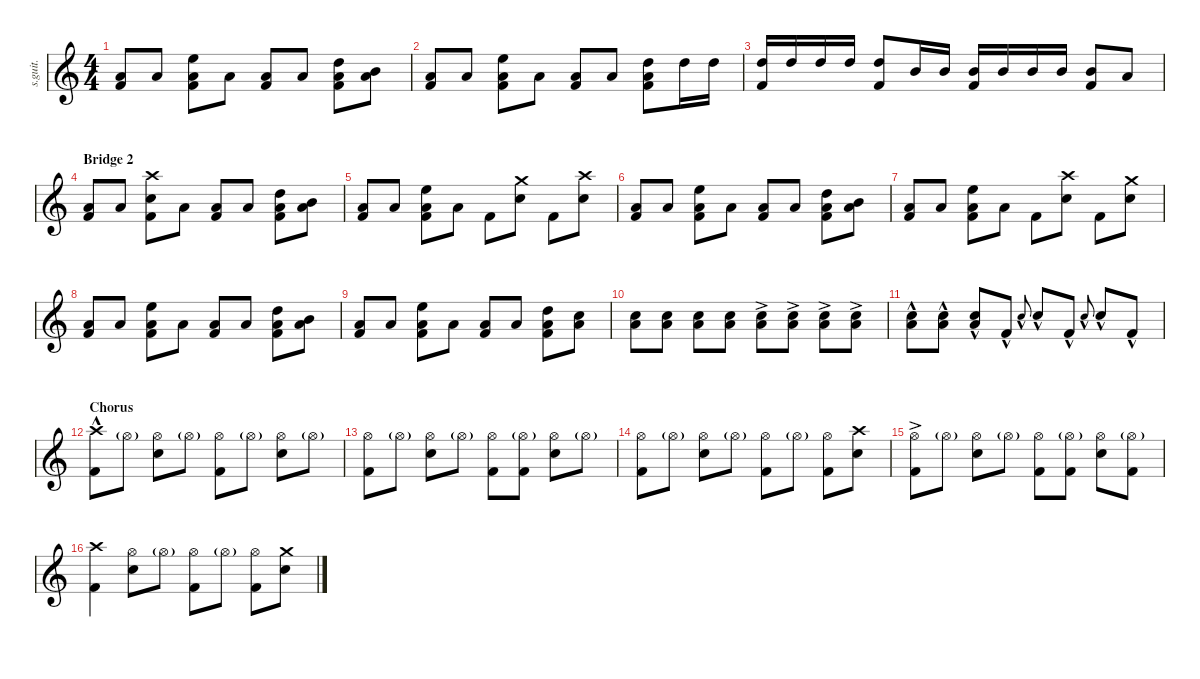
\defaultSystemsLayout 4
\hideDynamics
\bracketExtendMode nobrackets
\track ("Lars Ulrich" "s.guit.") {instrument percussion}
\staff {score}
\articulation defaults
\ts (4 4)
\tempo (124 hide)
\clef g2
\ks c
("Low Floor Tom (hit)" "Kick (hit) 2").8{lyrics (0 "") lyrics (1 "") lyrics (2 "") lyrics (3 "") lyrics (4 "") dy f} "Low Floor Tom (hit)".8{lyrics (0 "") lyrics (1 "") lyrics (2 "") lyrics (3 "") lyrics (4 "") dy mf} ("Low Floor Tom (hit)" "Kick (hit) 2" "High Floor Tom (hit)").8{lyrics (0 "") lyrics (1 "") lyrics (2 "") lyrics (3 "") lyrics (4 "") dy f} "Low Floor Tom (hit)".8{lyrics (0 "") lyrics (1 "") lyrics (2 "") lyrics (3 "") lyrics (4 "") dy mf} ("Low Floor Tom (hit)" "Kick (hit) 2").8{lyrics (0 "") lyrics (1 "") lyrics (2 "") lyrics (3 "") lyrics (4 "") dy f} "Low Floor Tom (hit)".8{lyrics (0 "") lyrics (1 "") lyrics (2 "") lyrics (3 "") lyrics (4 "") dy mf} ("Low Floor Tom (hit)" "Kick (hit) 2" "High Tom (hit)").8{lyrics (0 "") lyrics (1 "") lyrics (2 "") lyrics (3 "") lyrics (4 "") dy f} ("Low Floor Tom (hit)" "Mid Tom (hit)").8{lyrics (0 "") lyrics (1 "") lyrics (2 "") lyrics (3 "") lyrics (4 "") dy ff} |
("Low Floor Tom (hit)" "Kick (hit) 2").8{lyrics (0 "") lyrics (1 "") lyrics (2 "") lyrics (3 "") lyrics (4 "") dy f} "Low Floor Tom (hit)".8{lyrics (0 "") lyrics (1 "") lyrics (2 "") lyrics (3 "") lyrics (4 "") dy mf} ("Low Floor Tom (hit)" "Kick (hit) 2" "High Floor Tom (hit)").8{lyrics (0 "") lyrics (1 "") lyrics (2 "") lyrics (3 "") lyrics (4 "") dy f} "Low Floor Tom (hit)".8{lyrics (0 "") lyrics (1 "") lyrics (2 "") lyrics (3 "") lyrics (4 "") dy mf} ("Low Floor Tom (hit)" "Kick (hit) 2").8{lyrics (0 "") lyrics (1 "") lyrics (2 "") lyrics (3 "") lyrics (4 "") dy f} "Low Floor Tom (hit)".8{lyrics (0 "") lyrics (1 "") lyrics (2 "") lyrics (3 "") lyrics (4 "") dy mf} ("Low Floor Tom (hit)" "Kick (hit) 2" "High Tom (hit)").8{lyrics (0 "") lyrics (1 "") lyrics (2 "") lyrics (3 "") lyrics (4 "") dy f} "High Tom (hit)".16{lyrics (0 "") lyrics (1 "") lyrics (2 "") lyrics (3 "") lyrics (4 "") dy ff} "High Tom (hit)".16{lyrics (0 "") lyrics (1 "") lyrics (2 "") lyrics (3 "") lyrics (4 "")} |
("Kick (hit) 2" "High Tom (hit)").16{lyrics (0 "") lyrics (1 "") lyrics (2 "") lyrics (3 "") lyrics (4 "")} "High Tom (hit)".16{lyrics (0 "") lyrics (1 "") lyrics (2 "") lyrics (3 "") lyrics (4 "")} "High Tom (hit)".16{lyrics (0 "") lyrics (1 "") lyrics (2 "") lyrics (3 "") lyrics (4 "")} "High Tom (hit)".16{lyrics (0 "") lyrics (1 "") lyrics (2 "") lyrics (3 "") lyrics (4 "")} ("Kick (hit) 2" "High Tom (hit)").8{lyrics (0 "") lyrics (1 "") lyrics (2 "") lyrics (3 "") lyrics (4 "")} "Mid Tom (hit)".16{lyrics (0 "") lyrics (1 "") lyrics (2 "") lyrics (3 "") lyrics (4 "")} "Mid Tom (hit)".16{lyrics (0 "") lyrics (1 "") lyrics (2 "") lyrics (3 "") lyrics (4 "")} ("Kick (hit) 2" "Mid Tom (hit)").16{lyrics (0 "") lyrics (1 "") lyrics (2 "") lyrics (3 "") lyrics (4 "") dy f} "Mid Tom (hit)".16{lyrics (0 "") lyrics (1 "") lyrics (2 "") lyrics (3 "") lyrics (4 "") dy ff} "Mid Tom (hit)".16{lyrics (0 "") lyrics (1 "") lyrics (2 "") lyrics (3 "") lyrics (4 "")} "Mid Tom (hit)".16{lyrics (0 "") lyrics (1 "") lyrics (2 "") lyrics (3 "") lyrics (4 "")} ("Kick (hit) 2" "Mid Tom (hit)").8{lyrics (0 "") lyrics (1 "") lyrics (2 "") lyrics (3 "") lyrics (4 "")} "Low Floor Tom (hit)".8{lyrics (0 "") lyrics (1 "") lyrics (2 "") lyrics (3 "") lyrics (4 "") dy mf} |
\section ("" "Bridge 2")
("Low Floor Tom (hit)" "Kick (hit) 2").8{lyrics (0 "") lyrics (1 "") lyrics (2 "") lyrics (3 "") lyrics (4 "") dy f} "Low Floor Tom (hit)".8{lyrics (0 "") lyrics (1 "") lyrics (2 "") lyrics (3 "") lyrics (4 "") dy mf} ("Snare (hit) 2" "Crash high (hit)" "Kick (hit) 2").8{lyrics (0 "") lyrics (1 "") lyrics (2 "") lyrics (3 "") lyrics (4 "") dy f} "Low Floor Tom (hit)".8{lyrics (0 "") lyrics (1 "") lyrics (2 "") lyrics (3 "") lyrics (4 "") dy mf} ("Low Floor Tom (hit)" "Kick (hit) 2").8{lyrics (0 "") lyrics (1 "") lyrics (2 "") lyrics (3 "") lyrics (4 "") dy f} "Low Floor Tom (hit)".8{lyrics (0 "") lyrics (1 "") lyrics (2 "") lyrics (3 "") lyrics (4 "") dy mf} ("Low Floor Tom (hit)" "Kick (hit) 2" "High Tom (hit)").8{lyrics (0 "") lyrics (1 "") lyrics (2 "") lyrics (3 "") lyrics (4 "") dy f} ("Low Floor Tom (hit)" "Mid Tom (hit)").8{lyrics (0 "") lyrics (1 "") lyrics (2 "") lyrics (3 "") lyrics (4 "") dy ff} |
("Low Floor Tom (hit)" "Kick (hit) 2").8{lyrics (0 "") lyrics (1 "") lyrics (2 "") lyrics (3 "") lyrics (4 "") dy f} "Low Floor Tom (hit)".8{lyrics (0 "") lyrics (1 "") lyrics (2 "") lyrics (3 "") lyrics (4 "") dy mf} ("Low Floor Tom (hit)" "Kick (hit) 2" "High Floor Tom (hit)").8{lyrics (0 "") lyrics (1 "") lyrics (2 "") lyrics (3 "") lyrics (4 "") dy f} "Low Floor Tom (hit)".8{lyrics (0 "") lyrics (1 "") lyrics (2 "") lyrics (3 "") lyrics (4 "") dy mf} "Kick (hit) 2".8{lyrics (0 "") lyrics (1 "") lyrics (2 "") lyrics (3 "") lyrics (4 "") dy f} ("Snare (hit) 2" "Crash medium (hit)").8{lyrics (0 "") lyrics (1 "") lyrics (2 "") lyrics (3 "") lyrics (4 "")} "Kick (hit) 2".8{lyrics (0 "") lyrics (1 "") lyrics (2 "") lyrics (3 "") lyrics (4 "")} ("Snare (hit) 2" "Crash high (hit)").8{lyrics (0 "") lyrics (1 "") lyrics (2 "") lyrics (3 "") lyrics (4 "")} |
("Low Floor Tom (hit)" "Kick (hit) 2").8{lyrics (0 "") lyrics (1 "") lyrics (2 "") lyrics (3 "") lyrics (4 "")} "Low Floor Tom (hit)".8{lyrics (0 "") lyrics (1 "") lyrics (2 "") lyrics (3 "") lyrics (4 "") dy mf} ("Low Floor Tom (hit)" "Kick (hit) 2" "High Floor Tom (hit)").8{lyrics (0 "") lyrics (1 "") lyrics (2 "") lyrics (3 "") lyrics (4 "") dy f} "Low Floor Tom (hit)".8{lyrics (0 "") lyrics (1 "") lyrics (2 "") lyrics (3 "") lyrics (4 "") dy mf} ("Low Floor Tom (hit)" "Kick (hit) 2").8{lyrics (0 "") lyrics (1 "") lyrics (2 "") lyrics (3 "") lyrics (4 "") dy f} "Low Floor Tom (hit)".8{lyrics (0 "") lyrics (1 "") lyrics (2 "") lyrics (3 "") lyrics (4 "") dy mf} ("Low Floor Tom (hit)" "Kick (hit) 2" "High Tom (hit)").8{lyrics (0 "") lyrics (1 "") lyrics (2 "") lyrics (3 "") lyrics (4 "") dy f} ("Low Floor Tom (hit)" "Mid Tom (hit)").8{lyrics (0 "") lyrics (1 "") lyrics (2 "") lyrics (3 "") lyrics (4 "") dy ff} |
("Low Floor Tom (hit)" "Kick (hit) 2").8{lyrics (0 "") lyrics (1 "") lyrics (2 "") lyrics (3 "") lyrics (4 "") dy f} "Low Floor Tom (hit)".8{lyrics (0 "") lyrics (1 "") lyrics (2 "") lyrics (3 "") lyrics (4 "") dy mf} ("Low Floor Tom (hit)" "Kick (hit) 2" "High Floor Tom (hit)").8{lyrics (0 "") lyrics (1 "") lyrics (2 "") lyrics (3 "") lyrics (4 "") dy f} "Low Floor Tom (hit)".8{lyrics (0 "") lyrics (1 "") lyrics (2 "") lyrics (3 "") lyrics (4 "") dy mf} "Kick (hit) 2".8{lyrics (0 "") lyrics (1 "") lyrics (2 "") lyrics (3 "") lyrics (4 "") dy f} ("Snare (hit) 2" "Crash high (hit)").8{lyrics (0 "") lyrics (1 "") lyrics (2 "") lyrics (3 "") lyrics (4 "")} "Kick (hit) 2".8{lyrics (0 "") lyrics (1 "") lyrics (2 "") lyrics (3 "") lyrics (4 "")} ("Snare (hit) 2" "Crash medium (hit)").8{lyrics (0 "") lyrics (1 "") lyrics (2 "") lyrics (3 "") lyrics (4 "")} |
("Low Floor Tom (hit)" "Kick (hit) 2").8{lyrics (0 "") lyrics (1 "") lyrics (2 "") lyrics (3 "") lyrics (4 "")} "Low Floor Tom (hit)".8{lyrics (0 "") lyrics (1 "") lyrics (2 "") lyrics (3 "") lyrics (4 "") dy mf} ("Low Floor Tom (hit)" "Kick (hit) 2" "High Floor Tom (hit)").8{lyrics (0 "") lyrics (1 "") lyrics (2 "") lyrics (3 "") lyrics (4 "") dy f} "Low Floor Tom (hit)".8{lyrics (0 "") lyrics (1 "") lyrics (2 "") lyrics (3 "") lyrics (4 "") dy mf} ("Low Floor Tom (hit)" "Kick (hit) 2").8{lyrics (0 "") lyrics (1 "") lyrics (2 "") lyrics (3 "") lyrics (4 "") dy f} "Low Floor Tom (hit)".8{lyrics (0 "") lyrics (1 "") lyrics (2 "") lyrics (3 "") lyrics (4 "") dy mf} ("Low Floor Tom (hit)" "Kick (hit) 2" "High Tom (hit)").8{lyrics (0 "") lyrics (1 "") lyrics (2 "") lyrics (3 "") lyrics (4 "") dy f} ("Low Floor Tom (hit)" "Mid Tom (hit)").8{lyrics (0 "") lyrics (1 "") lyrics (2 "") lyrics (3 "") lyrics (4 "") dy ff} |
("Low Floor Tom (hit)" "Kick (hit) 2").8{lyrics (0 "") lyrics (1 "") lyrics (2 "") lyrics (3 "") lyrics (4 "") dy f} "Low Floor Tom (hit)".8{lyrics (0 "") lyrics (1 "") lyrics (2 "") lyrics (3 "") lyrics (4 "") dy mf} ("Low Floor Tom (hit)" "Kick (hit) 2" "High Floor Tom (hit)").8{lyrics (0 "") lyrics (1 "") lyrics (2 "") lyrics (3 "") lyrics (4 "") dy f} "Low Floor Tom (hit)".8{lyrics (0 "") lyrics (1 "") lyrics (2 "") lyrics (3 "") lyrics (4 "") dy mf} ("Low Floor Tom (hit)" "Kick (hit) 2").8{lyrics (0 "") lyrics (1 "") lyrics (2 "") lyrics (3 "") lyrics (4 "") dy f} "Low Floor Tom (hit)".8{lyrics (0 "") lyrics (1 "") lyrics (2 "") lyrics (3 "") lyrics (4 "") dy mf} ("Low Floor Tom (hit)" "Kick (hit) 2" "High Tom (hit)").8{lyrics (0 "") lyrics (1 "") lyrics (2 "") lyrics (3 "") lyrics (4 "") dy f} ("Snare (hit) 2" "Low Floor Tom (hit)").8{lyrics (0 "") lyrics (1 "") lyrics (2 "") lyrics (3 "") lyrics (4 "") dy p} |
("Snare (hit) 2" "Low Floor Tom (hit)").8{lyrics (0 "") lyrics (1 "") lyrics (2 "") lyrics (3 "") lyrics (4 "")} ("Snare (hit) 2" "Low Floor Tom (hit)").8{lyrics (0 "") lyrics (1 "") lyrics (2 "") lyrics (3 "") lyrics (4 "")} ("Snare (hit) 2" "Low Floor Tom (hit)").8{lyrics (0 "") lyrics (1 "") lyrics (2 "") lyrics (3 "") lyrics (4 "") dy mp} ("Snare (hit) 2" "Low Floor Tom (hit)").8{lyrics (0 "") lyrics (1 "") lyrics (2 "") lyrics (3 "") lyrics (4 "")} ("Snare (hit) 2"{ac} "Low Floor Tom (hit)"{ac}).8{lyrics (0 "") lyrics (1 "") lyrics (2 "") lyrics (3 "") lyrics (4 "") dy mf} ("Snare (hit) 2"{ac} "Low Floor Tom (hit)"{ac}).8{lyrics (0 "") lyrics (1 "") lyrics (2 "") lyrics (3 "") lyrics (4 "") dy f} ("Snare (hit) 2"{ac} "Low Floor Tom (hit)"{ac}).8{lyrics (0 "") lyrics (1 "") lyrics (2 "") lyrics (3 "") lyrics (4 "")} ("Snare (hit) 2"{ac} "Low Floor Tom (hit)"{ac}).8{lyrics (0 "") lyrics (1 "") lyrics (2 "") lyrics (3 "") lyrics (4 "")} |
("Snare (hit) 2"{hac} "Low Floor Tom (hit)"{hac}).8{lyrics (0 "") lyrics (1 "") lyrics (2 "") lyrics (3 "") lyrics (4 "")} ("Snare (hit) 2"{hac} "Low Floor Tom (hit)"{hac}).8{lyrics (0 "") lyrics (1 "") lyrics (2 "") lyrics (3 "") lyrics (4 "")} ("Snare (hit) 2"{hac} "Low Floor Tom (hit)"{hac}).8{lyrics (0 "") lyrics (1 "") lyrics (2 "") lyrics (3 "") lyrics (4 "")} "Kick (hit) 2"{hac}.8{lyrics (0 "") lyrics (1 "") lyrics (2 "") lyrics (3 "") lyrics (4 "") dy p} "Snare (hit) 2"{hac}.8{lyrics (0 "") lyrics (1 "") lyrics (2 "") lyrics (3 "") lyrics (4 "") gr onbeat} "Snare (hit) 2"{hac}.8{lyrics (0 "") lyrics (1 "") lyrics (2 "") lyrics (3 "") lyrics (4 "")} "Kick (hit) 2"{hac}.8{lyrics (0 "") lyrics (1 "") lyrics (2 "") lyrics (3 "") lyrics (4 "")} "Snare (hit) 2"{hac}.8{lyrics (0 "") lyrics (1 "") lyrics (2 "") lyrics (3 "") lyrics (4 "") gr onbeat} "Snare (hit) 2"{hac}.8{lyrics (0 "") lyrics (1 "") lyrics (2 "") lyrics (3 "") lyrics (4 "")} "Kick (hit) 2"{hac}.8{lyrics (0 "") lyrics (1 "") lyrics (2 "") lyrics (3 "") lyrics (4 "")} |
\section ("" "Chorus")
("Crash high (hit)"{hac} "Kick (hit) 2"{hac}).8{lyrics (0 "") lyrics (1 "") lyrics (2 "") lyrics (3 "") lyrics (4 "")} "Hi-Hat (open)"{g}.8{lyrics (0 "") lyrics (1 "") lyrics (2 "") lyrics (3 "") lyrics (4 "")} ("Hi-Hat (open)" "Snare (hit) 2").8{lyrics (0 "") lyrics (1 "") lyrics (2 "") lyrics (3 "") lyrics (4 "") dy f} "Hi-Hat (open)"{g}.8{lyrics (0 "") lyrics (1 "") lyrics (2 "") lyrics (3 "") lyrics (4 "") dy p} ("Hi-Hat (open)" "Kick (hit) 2").8{lyrics (0 "") lyrics (1 "") lyrics (2 "") lyrics (3 "") lyrics (4 "") dy f} "Hi-Hat (open)"{g}.8{lyrics (0 "") lyrics (1 "") lyrics (2 "") lyrics (3 "") lyrics (4 "") dy p} ("Hi-Hat (open)" "Snare (hit) 2").8{lyrics (0 "") lyrics (1 "") lyrics (2 "") lyrics (3 "") lyrics (4 "") dy f} "Hi-Hat (open)"{g}.8{lyrics (0 "") lyrics (1 "") lyrics (2 "") lyrics (3 "") lyrics (4 "") dy p} |
("Hi-Hat (open)" "Kick (hit) 2").8{lyrics (0 "") lyrics (1 "") lyrics (2 "") lyrics (3 "") lyrics (4 "") dy f} "Hi-Hat (open)"{g}.8{lyrics (0 "") lyrics (1 "") lyrics (2 "") lyrics (3 "") lyrics (4 "") dy p} ("Hi-Hat (open)" "Snare (hit) 2").8{lyrics (0 "") lyrics (1 "") lyrics (2 "") lyrics (3 "") lyrics (4 "") dy f} "Hi-Hat (open)"{g}.8{lyrics (0 "") lyrics (1 "") lyrics (2 "") lyrics (3 "") lyrics (4 "") dy p} ("Hi-Hat (open)" "Kick (hit) 2").8{lyrics (0 "") lyrics (1 "") lyrics (2 "") lyrics (3 "") lyrics (4 "") dy f} ("Hi-Hat (open)"{g} "Kick (hit) 2").8{lyrics (0 "") lyrics (1 "") lyrics (2 "") lyrics (3 "") lyrics (4 "")} ("Hi-Hat (open)" "Snare (hit) 2").8{lyrics (0 "") lyrics (1 "") lyrics (2 "") lyrics (3 "") lyrics (4 "")} "Hi-Hat (open)"{g}.8{lyrics (0 "") lyrics (1 "") lyrics (2 "") lyrics (3 "") lyrics (4 "") dy p} |
("Hi-Hat (open)" "Kick (hit) 2").8{lyrics (0 "") lyrics (1 "") lyrics (2 "") lyrics (3 "") lyrics (4 "") dy f} "Hi-Hat (open)"{g}.8{lyrics (0 "") lyrics (1 "") lyrics (2 "") lyrics (3 "") lyrics (4 "") dy p} ("Hi-Hat (open)" "Snare (hit) 2").8{lyrics (0 "") lyrics (1 "") lyrics (2 "") lyrics (3 "") lyrics (4 "") dy f} "Hi-Hat (open)"{g}.8{lyrics (0 "") lyrics (1 "") lyrics (2 "") lyrics (3 "") lyrics (4 "") dy p} ("Hi-Hat (open)" "Kick (hit) 2").8{lyrics (0 "") lyrics (1 "") lyrics (2 "") lyrics (3 "") lyrics (4 "") dy f} "Hi-Hat (open)"{g}.8{lyrics (0 "") lyrics (1 "") lyrics (2 "") lyrics (3 "") lyrics (4 "") dy p} ("Hi-Hat (open)" "Kick (hit) 2").8{lyrics (0 "") lyrics (1 "") lyrics (2 "") lyrics (3 "") lyrics (4 "") dy f} ("Crash high (hit)" "Snare (hit) 2").8{lyrics (0 "") lyrics (1 "") lyrics (2 "") lyrics (3 "") lyrics (4 "")} |
("Hi-Hat (open)"{ac} "Kick (hit) 2").8{lyrics (0 "") lyrics (1 "") lyrics (2 "") lyrics (3 "") lyrics (4 "")} "Hi-Hat (open)"{g}.8{lyrics (0 "") lyrics (1 "") lyrics (2 "") lyrics (3 "") lyrics (4 "") dy p} ("Hi-Hat (open)" "Snare (hit) 2").8{lyrics (0 "") lyrics (1 "") lyrics (2 "") lyrics (3 "") lyrics (4 "") dy f} "Hi-Hat (open)"{g}.8{lyrics (0 "") lyrics (1 "") lyrics (2 "") lyrics (3 "") lyrics (4 "") dy p} ("Hi-Hat (open)" "Kick (hit) 2").8{lyrics (0 "") lyrics (1 "") lyrics (2 "") lyrics (3 "") lyrics (4 "") dy f} ("Hi-Hat (open)"{g} "Kick (hit) 2").8{lyrics (0 "") lyrics (1 "") lyrics (2 "") lyrics (3 "") lyrics (4 "")} ("Hi-Hat (open)" "Snare (hit) 2").8{lyrics (0 "") lyrics (1 "") lyrics (2 "") lyrics (3 "") lyrics (4 "")} ("Hi-Hat (open)"{g} "Kick (hit) 2").8{lyrics (0 "") lyrics (1 "") lyrics (2 "") lyrics (3 "") lyrics (4 "")} |
("Crash high (hit)" "Kick (hit) 2").4{lyrics (0 "") lyrics (1 "") lyrics (2 "") lyrics (3 "") lyrics (4 "")} ("Hi-Hat (open)" "Snare (hit) 2").8{lyrics (0 "") lyrics (1 "") lyrics (2 "") lyrics (3 "") lyrics (4 "")} "Hi-Hat (open)"{g}.8{lyrics (0 "") lyrics (1 "") lyrics (2 "") lyrics (3 "") lyrics (4 "") dy p} ("Hi-Hat (open)" "Kick (hit) 2").8{lyrics (0 "") lyrics (1 "") lyrics (2 "") lyrics (3 "") lyrics (4 "") dy f} "Hi-Hat (open)"{g}.8{lyrics (0 "") lyrics (1 "") lyrics (2 "") lyrics (3 "") lyrics (4 "") dy p} ("Hi-Hat (open)" "Kick (hit) 2").8{lyrics (0 "") lyrics (1 "") lyrics (2 "") lyrics (3 "") lyrics (4 "") dy f} ("Crash medium (hit)" "Snare (hit) 2").8{lyrics (0 "") lyrics (1 "") lyrics (2 "") lyrics (3 "") lyrics (4 "")}
